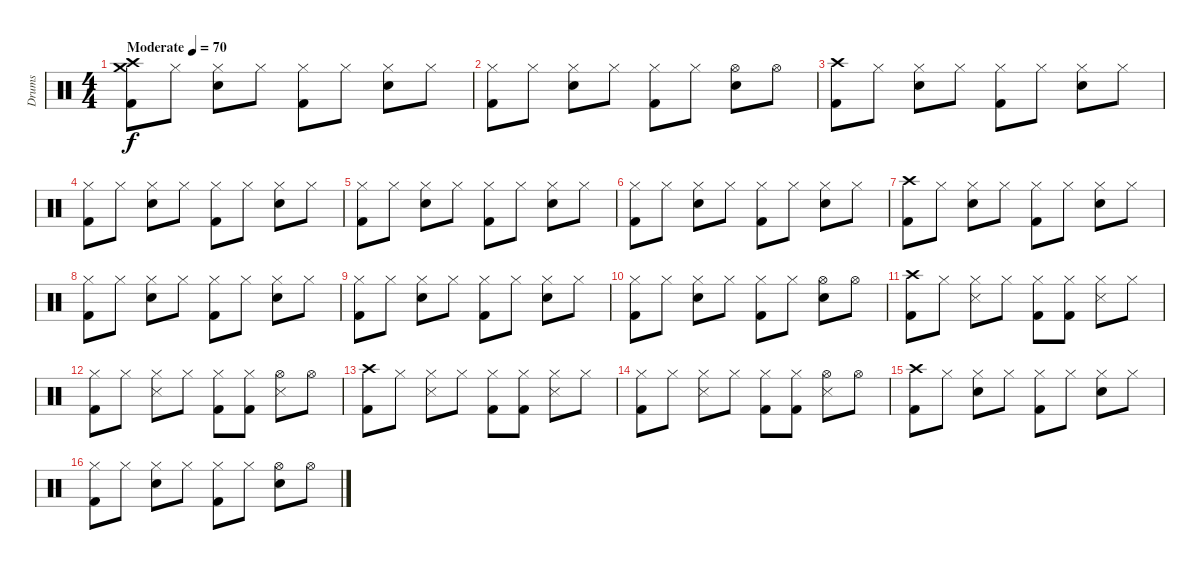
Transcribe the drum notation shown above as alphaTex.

\track ("Drums" "Drums") {instrument percussion}
\staff {score}
\articulation defaults
\ts (4 4)
\tempo (70 "Moderate")
\clef neutral
\ks c
("Crash medium (hit)" "Kick (hit) 2" "Crash high (hit)").8{dy f} "Hi-Hat (closed)".8 ("Hi-Hat (closed)" "Electric Snare (hit)").8 "Hi-Hat (closed)".8 ("Hi-Hat (closed)" "Kick (hit) 2").8 "Hi-Hat (closed)".8 ("Hi-Hat (closed)" "Electric Snare (hit)").8 "Hi-Hat (closed)".8 |
("Kick (hit) 2" "Hi-Hat (closed)").8 "Hi-Hat (closed)".8 ("Hi-Hat (closed)" "Electric Snare (hit)").8 "Hi-Hat (closed)".8 ("Hi-Hat (closed)" "Kick (hit) 2").8 "Hi-Hat (closed)".8 ("Hi-Hat (open)" "Electric Snare (hit)").8 "Hi-Hat (open)".8 |
("Kick (hit) 2" "Crash high (hit)").8 "Hi-Hat (closed)".8 ("Hi-Hat (closed)" "Electric Snare (hit)").8 "Hi-Hat (closed)".8 ("Hi-Hat (closed)" "Kick (hit) 2").8 "Hi-Hat (closed)".8 ("Hi-Hat (closed)" "Electric Snare (hit)").8 "Hi-Hat (closed)".8 |
("Kick (hit) 2" "Hi-Hat (closed)").8 "Hi-Hat (closed)".8 ("Hi-Hat (closed)" "Electric Snare (hit)").8 "Hi-Hat (closed)".8 ("Hi-Hat (closed)" "Kick (hit) 2").8 "Hi-Hat (closed)".8 ("Hi-Hat (closed)" "Electric Snare (hit)").8 "Hi-Hat (closed)".8 |
("Kick (hit) 2" "Hi-Hat (closed)").8 "Hi-Hat (closed)".8 ("Hi-Hat (closed)" "Electric Snare (hit)").8 "Hi-Hat (closed)".8 ("Hi-Hat (closed)" "Kick (hit) 2").8 "Hi-Hat (closed)".8 ("Hi-Hat (closed)" "Electric Snare (hit)").8 "Hi-Hat (closed)".8 |
("Kick (hit) 2" "Hi-Hat (closed)").8 "Hi-Hat (closed)".8 ("Hi-Hat (closed)" "Electric Snare (hit)").8 "Hi-Hat (closed)".8 ("Hi-Hat (closed)" "Kick (hit) 2").8 "Hi-Hat (closed)".8 ("Hi-Hat (closed)" "Electric Snare (hit)").8 "Hi-Hat (closed)".8 |
("Kick (hit) 2" "Crash high (hit)").8 "Hi-Hat (closed)".8 ("Hi-Hat (closed)" "Electric Snare (hit)").8 "Hi-Hat (closed)".8 ("Hi-Hat (closed)" "Kick (hit) 2").8 "Hi-Hat (closed)".8 ("Hi-Hat (closed)" "Electric Snare (hit)").8 "Hi-Hat (closed)".8 |
("Kick (hit) 2" "Hi-Hat (closed)").8 "Hi-Hat (closed)".8 ("Hi-Hat (closed)" "Electric Snare (hit)").8 "Hi-Hat (closed)".8 ("Hi-Hat (closed)" "Kick (hit) 2").8 "Hi-Hat (closed)".8 ("Hi-Hat (closed)" "Electric Snare (hit)").8 "Hi-Hat (closed)".8 |
("Kick (hit) 2" "Hi-Hat (closed)").8 "Hi-Hat (closed)".8 ("Hi-Hat (closed)" "Electric Snare (hit)").8 "Hi-Hat (closed)".8 ("Hi-Hat (closed)" "Kick (hit) 2").8 "Hi-Hat (closed)".8 ("Hi-Hat (closed)" "Electric Snare (hit)").8 "Hi-Hat (closed)".8 |
("Kick (hit) 2" "Hi-Hat (closed)").8 "Hi-Hat (closed)".8 ("Hi-Hat (closed)" "Electric Snare (hit)").8 "Hi-Hat (closed)".8 ("Hi-Hat (closed)" "Kick (hit) 2").8 "Hi-Hat (closed)".8 ("Hi-Hat (open)" "Electric Snare (hit)").8 "Hi-Hat (open)".8 |
("Crash high (hit)" "Kick (hit) 2").8 "Hi-Hat (closed)".8 ("Hi-Hat (closed)" "Snare (side stick) 3").8 "Hi-Hat (closed)".8 ("Hi-Hat (closed)" "Kick (hit) 2").8 ("Hi-Hat (closed)" "Kick (hit) 2").8 ("Hi-Hat (closed)" "Snare (side stick) 3").8 "Hi-Hat (closed)".8 |
("Hi-Hat (closed)" "Kick (hit) 2").8 "Hi-Hat (closed)".8 ("Hi-Hat (closed)" "Snare (side stick) 3").8 "Hi-Hat (closed)".8 ("Hi-Hat (closed)" "Kick (hit) 2").8 ("Hi-Hat (closed)" "Kick (hit) 2").8 ("Hi-Hat (open)" "Snare (side stick) 3").8 "Hi-Hat (open)".8 |
("Crash high (hit)" "Kick (hit) 2").8 "Hi-Hat (closed)".8 ("Hi-Hat (closed)" "Snare (side stick) 3").8 "Hi-Hat (closed)".8 ("Hi-Hat (closed)" "Kick (hit) 2").8 ("Hi-Hat (closed)" "Kick (hit) 2").8 ("Snare (side stick) 3" "Hi-Hat (closed)").8 "Hi-Hat (closed)".8 |
("Hi-Hat (closed)" "Kick (hit) 2").8 "Hi-Hat (closed)".8 ("Hi-Hat (closed)" "Snare (side stick) 3").8 "Hi-Hat (closed)".8 ("Hi-Hat (closed)" "Kick (hit) 2").8 ("Hi-Hat (closed)" "Kick (hit) 2").8 ("Hi-Hat (open)" "Snare (side stick) 3").8 "Hi-Hat (open)".8 |
("Kick (hit) 2" "Crash high (hit)").8 "Hi-Hat (closed)".8 ("Hi-Hat (closed)" "Electric Snare (hit)").8 "Hi-Hat (closed)".8 ("Hi-Hat (closed)" "Kick (hit) 2").8 "Hi-Hat (closed)".8 ("Hi-Hat (closed)" "Electric Snare (hit)").8 "Hi-Hat (closed)".8 |
("Kick (hit) 2" "Hi-Hat (closed)").8 "Hi-Hat (closed)".8 ("Hi-Hat (closed)" "Electric Snare (hit)").8 "Hi-Hat (closed)".8 ("Hi-Hat (closed)" "Kick (hit) 2").8 "Hi-Hat (closed)".8 ("Hi-Hat (open)" "Electric Snare (hit)").8 "Hi-Hat (open)".8
